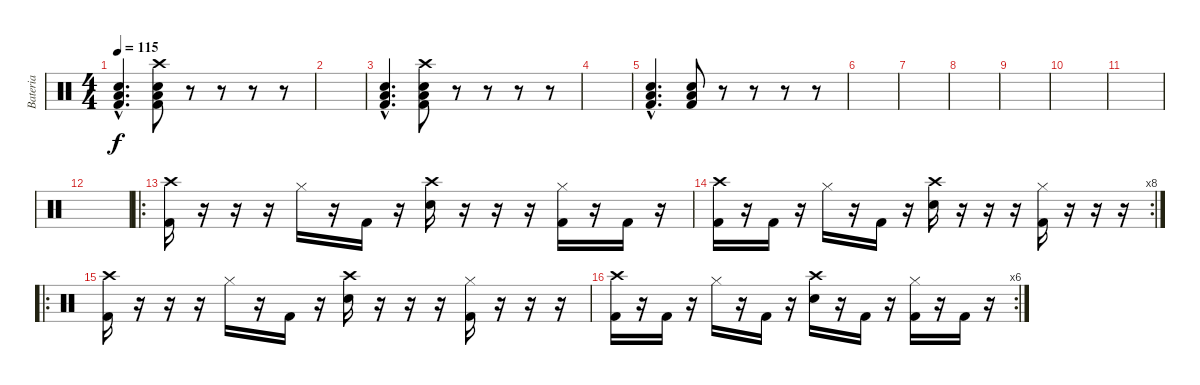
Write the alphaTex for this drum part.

\track ("Bateria" "Bateria") {instrument percussion}
\staff {score}
\articulation defaults
\ts (4 4)
\tempo 115
\clef neutral
\ks c
("Electric Snare (hit)"{hac} "Low Floor Tom (hit)"{hac} "Kick (hit) 2"{hac}).4{d dy f} ("Crash high (hit)" "Electric Snare (hit)" "Low Floor Tom (hit)" "Kick (hit) 2").8 r.8 r.8 r.8 r.8 |
|
("Electric Snare (hit)"{hac} "Low Floor Tom (hit)"{hac} "Kick (hit) 2"{hac}).4{d} ("Crash high (hit)" "Electric Snare (hit)" "Low Floor Tom (hit)" "Kick (hit) 2").8 r.8 r.8 r.8 r.8 |
|
("Electric Snare (hit)"{hac} "Low Floor Tom (hit)"{hac} "Kick (hit) 2"{hac}).4{d} ("Electric Snare (hit)" "Low Floor Tom (hit)" "Kick (hit) 2").8 r.8 r.8 r.8 r.8 |
|
|
|
|
|
|
|
\ro
("Crash high (hit)" "Kick (hit) 2").16 r.16 r.16 r.16 "Hi-Hat (closed)".16 r.16 "Kick (hit) 2".16 r.16 ("Crash high (hit)" "Electric Snare (hit)").16 r.16 r.16 r.16 ("Hi-Hat (closed)" "Kick (hit) 2").16 r.16 "Kick (hit) 2".16 r.16 |
\rc 8
("Crash high (hit)" "Kick (hit) 2").16 r.16 "Kick (hit) 2".16 r.16 "Hi-Hat (closed)".16 r.16 "Kick (hit) 2".16 r.16 ("Crash high (hit)" "Electric Snare (hit)").16 r.16 r.16 r.16 ("Hi-Hat (closed)" "Kick (hit) 2").16 r.16 r.16 r.16 |
\ro
("Crash high (hit)" "Kick (hit) 2").16 r.16 r.16 r.16 "Hi-Hat (closed)".16 r.16 "Kick (hit) 2".16 r.16 ("Crash high (hit)" "Electric Snare (hit)").16 r.16 r.16 r.16 ("Hi-Hat (closed)" "Kick (hit) 2").16 r.16 r.16 r.16 |
\rc 6
("Crash high (hit)" "Kick (hit) 2").16 r.16 "Kick (hit) 2".16 r.16 "Hi-Hat (closed)".16 r.16 "Kick (hit) 2".16 r.16 ("Crash high (hit)" "Electric Snare (hit)").16 r.16 "Kick (hit) 2".16 r.16 ("Hi-Hat (closed)" "Kick (hit) 2").16 r.16 "Kick (hit) 2".16 r.16
